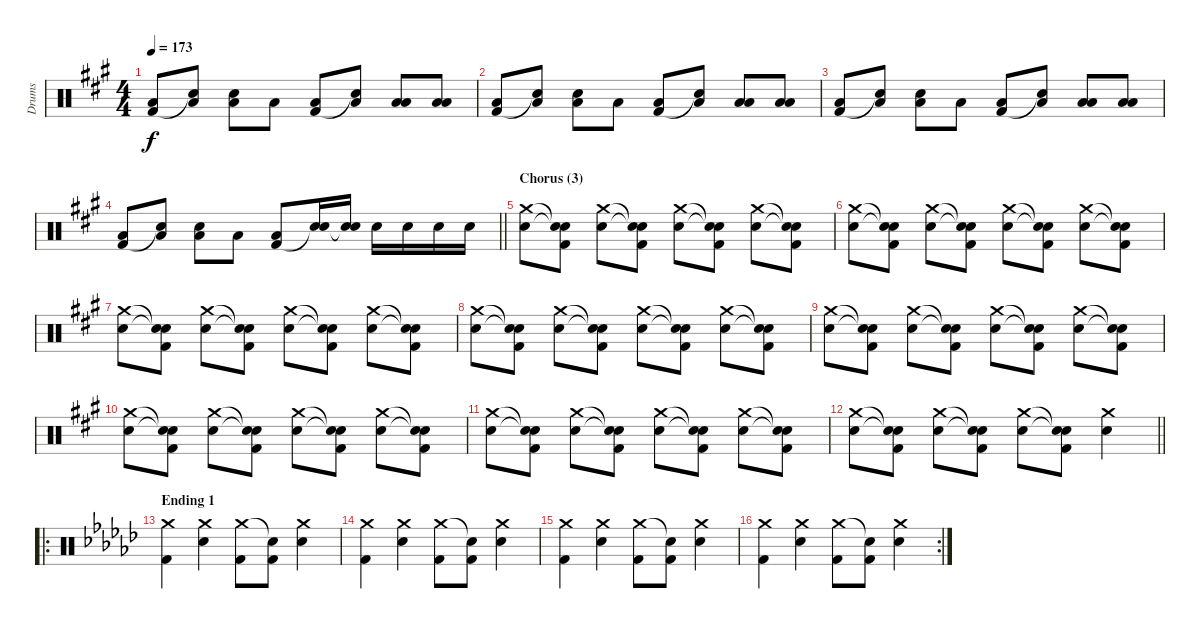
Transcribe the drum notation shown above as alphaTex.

\track ("Drums" "Drums") {instrument percussion}
\staff {score}
\articulation defaults
\ts (4 4)
\tempo 173
\clef neutral
\ks f#minor
("Low Floor Tom (hit)" "Kick (hit) 2").8{dy f} ("Low Floor Tom (hit)" "Snare (hit)"{t}).8 ("Electric Snare (hit)" "Low Floor Tom (hit)").8 "Low Floor Tom (hit)".8 ("Low Floor Tom (hit)" "Kick (hit) 2").8 ("Low Floor Tom (hit)" "Snare (hit)"{t}).8 ("Low Tom (hit)" "Low Floor Tom (hit)").8 ("Low Tom (hit)" "Low Floor Tom (hit)").8 |
("Low Floor Tom (hit)" "Kick (hit) 2").8 ("Low Floor Tom (hit)" "Snare (hit)"{t}).8 ("Electric Snare (hit)" "Low Floor Tom (hit)").8 "Low Floor Tom (hit)".8 ("Low Floor Tom (hit)" "Kick (hit) 2").8 ("Low Floor Tom (hit)" "Snare (hit)"{t}).8 ("Low Tom (hit)" "Low Floor Tom (hit)").8 ("Low Tom (hit)" "Low Floor Tom (hit)").8 |
("Low Floor Tom (hit)" "Kick (hit) 2").8 ("Low Floor Tom (hit)" "Snare (hit)"{t}).8 ("Electric Snare (hit)" "Low Floor Tom (hit)").8 "Low Floor Tom (hit)".8 ("Low Floor Tom (hit)" "Kick (hit) 2").8 ("Low Floor Tom (hit)" "Snare (hit)"{t}).8 ("Low Tom (hit)" "Low Floor Tom (hit)").8 ("Low Tom (hit)" "Low Floor Tom (hit)").8 |
\barLineRight lightlight
("Low Floor Tom (hit)" "Kick (hit) 2").8 ("Low Floor Tom (hit)" "Snare (hit)"{t}).8 ("Electric Snare (hit)" "Low Floor Tom (hit)").8 "Low Floor Tom (hit)".8 ("Low Floor Tom (hit)" "Kick (hit) 2").8 ("Electric Snare (hit)" "Snare (hit)"{t}).16 ("Electric Snare (hit)" "Snare (hit)"{t}).16 "Electric Snare (hit)".16 "Electric Snare (hit)".16 "Electric Snare (hit)".16 "Electric Snare (hit)".16 |
\section ("" "Chorus (3)")
("Crash medium (hit)" "Electric Snare (hit)").8 ("Snare (hit)"{t} "Snare (hit)"{t} "Kick (hit) 2").8 ("Crash medium (hit)" "Electric Snare (hit)").8 ("Snare (hit)"{t} "Snare (hit)"{t} "Kick (hit) 2").8 ("Crash medium (hit)" "Electric Snare (hit)").8 ("Snare (hit)"{t} "Snare (hit)"{t} "Kick (hit) 2").8 ("Crash medium (hit)" "Electric Snare (hit)").8 ("Snare (hit)"{t} "Snare (hit)"{t} "Kick (hit) 2").8 |
("Crash medium (hit)" "Electric Snare (hit)").8 ("Snare (hit)"{t} "Snare (hit)"{t} "Kick (hit) 2").8 ("Crash medium (hit)" "Electric Snare (hit)").8 ("Snare (hit)"{t} "Snare (hit)"{t} "Kick (hit) 2").8 ("Crash medium (hit)" "Electric Snare (hit)").8 ("Snare (hit)"{t} "Snare (hit)"{t} "Kick (hit) 2").8 ("Crash medium (hit)" "Electric Snare (hit)").8 ("Snare (hit)"{t} "Snare (hit)"{t} "Kick (hit) 2").8 |
("Crash medium (hit)" "Electric Snare (hit)").8 ("Snare (hit)"{t} "Snare (hit)"{t} "Kick (hit) 2").8 ("Crash medium (hit)" "Electric Snare (hit)").8 ("Snare (hit)"{t} "Snare (hit)"{t} "Kick (hit) 2").8 ("Crash medium (hit)" "Electric Snare (hit)").8 ("Snare (hit)"{t} "Snare (hit)"{t} "Kick (hit) 2").8 ("Crash medium (hit)" "Electric Snare (hit)").8 ("Snare (hit)"{t} "Snare (hit)"{t} "Kick (hit) 2").8 |
("Crash medium (hit)" "Electric Snare (hit)").8 ("Snare (hit)"{t} "Snare (hit)"{t} "Kick (hit) 2").8 ("Crash medium (hit)" "Electric Snare (hit)").8 ("Snare (hit)"{t} "Snare (hit)"{t} "Kick (hit) 2").8 ("Crash medium (hit)" "Electric Snare (hit)").8 ("Snare (hit)"{t} "Snare (hit)"{t} "Kick (hit) 2").8 ("Crash medium (hit)" "Electric Snare (hit)").8 ("Snare (hit)"{t} "Snare (hit)"{t} "Kick (hit) 2").8 |
("Crash medium (hit)" "Electric Snare (hit)").8 ("Snare (hit)"{t} "Snare (hit)"{t} "Kick (hit) 2").8 ("Crash medium (hit)" "Electric Snare (hit)").8 ("Snare (hit)"{t} "Snare (hit)"{t} "Kick (hit) 2").8 ("Crash medium (hit)" "Electric Snare (hit)").8 ("Snare (hit)"{t} "Snare (hit)"{t} "Kick (hit) 2").8 ("Crash medium (hit)" "Electric Snare (hit)").8 ("Snare (hit)"{t} "Snare (hit)"{t} "Kick (hit) 2").8 |
("Crash medium (hit)" "Electric Snare (hit)").8 ("Snare (hit)"{t} "Snare (hit)"{t} "Kick (hit) 2").8 ("Crash medium (hit)" "Electric Snare (hit)").8 ("Snare (hit)"{t} "Snare (hit)"{t} "Kick (hit) 2").8 ("Crash medium (hit)" "Electric Snare (hit)").8 ("Snare (hit)"{t} "Snare (hit)"{t} "Kick (hit) 2").8 ("Crash medium (hit)" "Electric Snare (hit)").8 ("Snare (hit)"{t} "Snare (hit)"{t} "Kick (hit) 2").8 |
("Crash medium (hit)" "Electric Snare (hit)").8 ("Snare (hit)"{t} "Snare (hit)"{t} "Kick (hit) 2").8 ("Crash medium (hit)" "Electric Snare (hit)").8 ("Snare (hit)"{t} "Snare (hit)"{t} "Kick (hit) 2").8 ("Crash medium (hit)" "Electric Snare (hit)").8 ("Snare (hit)"{t} "Snare (hit)"{t} "Kick (hit) 2").8 ("Crash medium (hit)" "Electric Snare (hit)").8 ("Snare (hit)"{t} "Snare (hit)"{t} "Kick (hit) 2").8 |
\barLineRight lightlight
("Crash medium (hit)" "Electric Snare (hit)").8 ("Snare (hit)"{t} "Snare (hit)"{t} "Kick (hit) 2").8 ("Crash medium (hit)" "Electric Snare (hit)").8 ("Snare (hit)"{t} "Snare (hit)"{t} "Kick (hit) 2").8 ("Crash medium (hit)" "Electric Snare (hit)").8 ("Snare (hit)"{t} "Snare (hit)"{t} "Kick (hit) 2").8 ("Crash medium (hit)" "Electric Snare (hit)").4 |
\ro
\section ("" "Ending 1")
\ks ebminor
("Crash medium (hit)" "Kick (hit) 2").4 ("Crash medium (hit)" "Electric Snare (hit)").4 ("Crash medium (hit)" "Kick (hit) 2").8 ("Snare (hit)"{t} "Kick (hit) 2").8 ("Crash medium (hit)" "Electric Snare (hit)").4 |
("Crash medium (hit)" "Kick (hit) 2").4 ("Crash medium (hit)" "Electric Snare (hit)").4 ("Crash medium (hit)" "Kick (hit) 2").8 ("Snare (hit)"{t} "Kick (hit) 2").8 ("Crash medium (hit)" "Electric Snare (hit)").4 |
("Crash medium (hit)" "Kick (hit) 2").4 ("Crash medium (hit)" "Electric Snare (hit)").4 ("Crash medium (hit)" "Kick (hit) 2").8 ("Snare (hit)"{t} "Kick (hit) 2").8 ("Crash medium (hit)" "Electric Snare (hit)").4 |
\rc 2
("Crash medium (hit)" "Kick (hit) 2").4 ("Crash medium (hit)" "Electric Snare (hit)").4 ("Crash medium (hit)" "Kick (hit) 2").8 ("Snare (hit)"{t} "Kick (hit) 2").8 ("Crash medium (hit)" "Electric Snare (hit)").4
